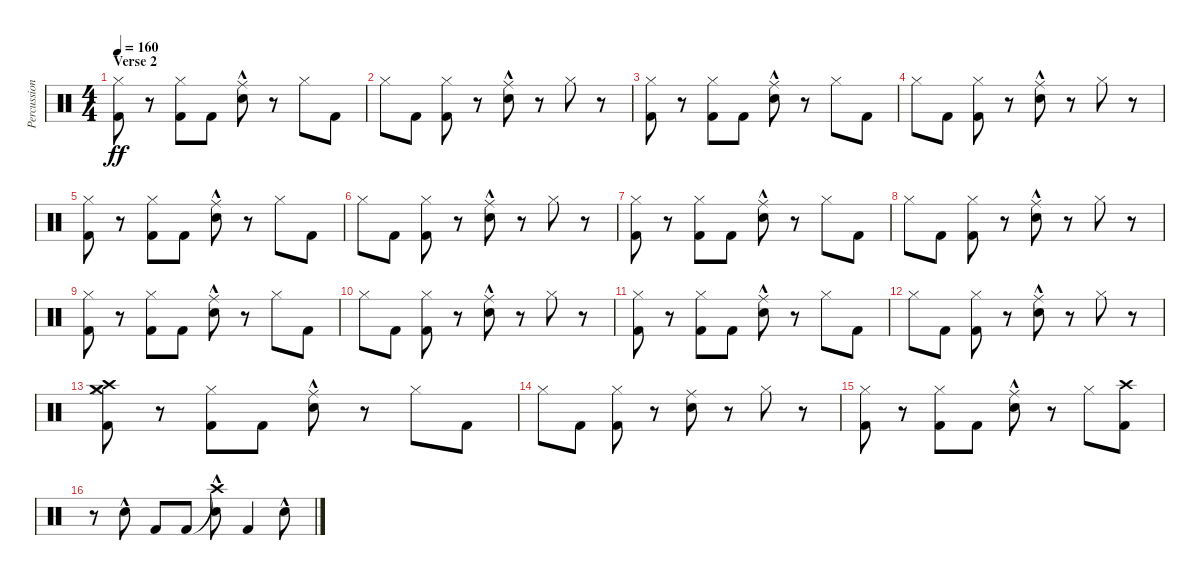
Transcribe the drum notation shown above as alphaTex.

\track ("Percussion" "Percussion") {instrument percussion}
\staff {score}
\articulation defaults
\ts (4 4)
\section ("" "Verse 2")
\tempo 160
\clef neutral
\ks c
("Hi-Hat (closed)" "Kick (hit) 2").8{dy ff} r.8 ("Hi-Hat (closed)" "Kick (hit) 2").8 "Kick (hit) 2".8 ("Ride (middle)" "Electric Snare (hit)"{hac}).8 r.8 "Hi-Hat (closed)".8 "Kick (hit) 2".8 |
"Hi-Hat (closed)".8 "Kick (hit) 2".8 ("Hi-Hat (closed)" "Kick (hit) 2").8 r.8 ("Ride (middle)" "Electric Snare (hit)"{hac}).8 r.8 "Hi-Hat (closed)".8 r.8 |
("Hi-Hat (closed)" "Kick (hit) 2").8 r.8 ("Hi-Hat (closed)" "Kick (hit) 2").8 "Kick (hit) 2".8 ("Ride (middle)" "Electric Snare (hit)"{hac}).8 r.8 "Hi-Hat (closed)".8 "Kick (hit) 2".8 |
"Hi-Hat (closed)".8 "Kick (hit) 2".8 ("Hi-Hat (closed)" "Kick (hit) 2").8 r.8 ("Ride (middle)" "Electric Snare (hit)"{hac}).8 r.8 "Hi-Hat (closed)".8 r.8 |
("Hi-Hat (closed)" "Kick (hit) 2").8 r.8 ("Hi-Hat (closed)" "Kick (hit) 2").8 "Kick (hit) 2".8 ("Ride (middle)" "Electric Snare (hit)"{hac}).8 r.8 "Hi-Hat (closed)".8 "Kick (hit) 2".8 |
"Hi-Hat (closed)".8 "Kick (hit) 2".8 ("Hi-Hat (closed)" "Kick (hit) 2").8 r.8 ("Ride (middle)" "Electric Snare (hit)"{hac}).8 r.8 "Hi-Hat (closed)".8 r.8 |
("Hi-Hat (closed)" "Kick (hit) 2").8 r.8 ("Hi-Hat (closed)" "Kick (hit) 2").8 "Kick (hit) 2".8 ("Ride (middle)" "Electric Snare (hit)"{hac}).8 r.8 "Hi-Hat (closed)".8 "Kick (hit) 2".8 |
"Hi-Hat (closed)".8 "Kick (hit) 2".8 ("Hi-Hat (closed)" "Kick (hit) 2").8 r.8 ("Ride (middle)" "Electric Snare (hit)"{hac}).8 r.8 "Hi-Hat (closed)".8 r.8 |
("Hi-Hat (closed)" "Kick (hit) 2").8 r.8 ("Hi-Hat (closed)" "Kick (hit) 2").8 "Kick (hit) 2".8 ("Ride (middle)" "Electric Snare (hit)"{hac}).8 r.8 "Hi-Hat (closed)".8 "Kick (hit) 2".8 |
"Hi-Hat (closed)".8 "Kick (hit) 2".8 ("Hi-Hat (closed)" "Kick (hit) 2").8 r.8 ("Ride (middle)" "Electric Snare (hit)"{hac}).8 r.8 "Hi-Hat (closed)".8 r.8 |
("Hi-Hat (closed)" "Kick (hit) 2").8 r.8 ("Hi-Hat (closed)" "Kick (hit) 2").8 "Kick (hit) 2".8 ("Ride (middle)" "Electric Snare (hit)"{hac}).8 r.8 "Hi-Hat (closed)".8 "Kick (hit) 2".8 |
"Hi-Hat (closed)".8 "Kick (hit) 2".8 ("Hi-Hat (closed)" "Kick (hit) 2").8 r.8 ("Ride (middle)" "Electric Snare (hit)"{hac}).8 r.8 "Hi-Hat (closed)".8 r.8 |
("Hi-Hat (closed)" "Kick (hit) 2" "Crash high (hit)" "Crash medium (hit)").8 r.8 ("Hi-Hat (closed)" "Kick (hit) 2").8 "Kick (hit) 2".8 ("Ride (middle)"{hac} "Electric Snare (hit)"{hac}).8 r.8 "Hi-Hat (closed)".8 "Kick (hit) 2".8 |
"Hi-Hat (closed)".8 "Kick (hit) 2".8 ("Hi-Hat (closed)" "Kick (hit) 2").8 r.8 ("Ride (middle)" "Electric Snare (hit)").8 r.8 "Hi-Hat (closed)".8 r.8 |
("Hi-Hat (closed)" "Kick (hit) 2").8 r.8 ("Hi-Hat (closed)" "Kick (hit) 2").8 "Kick (hit) 2".8 ("Ride (middle)"{hac} "Electric Snare (hit)"{hac}).8 r.8 "Hi-Hat (closed)".8 ("Crash high (hit)" "Kick (hit) 2").8 |
r.8 "Electric Snare (hit)"{hac}.8 "Kick (hit) 2".8 "Kick (hit) 2".8 ("Crash high (hit)"{t} "Electric Snare (hit)"{hac}).8 "Kick (hit) 2".4 "Electric Snare (hit)"{hac}.8
